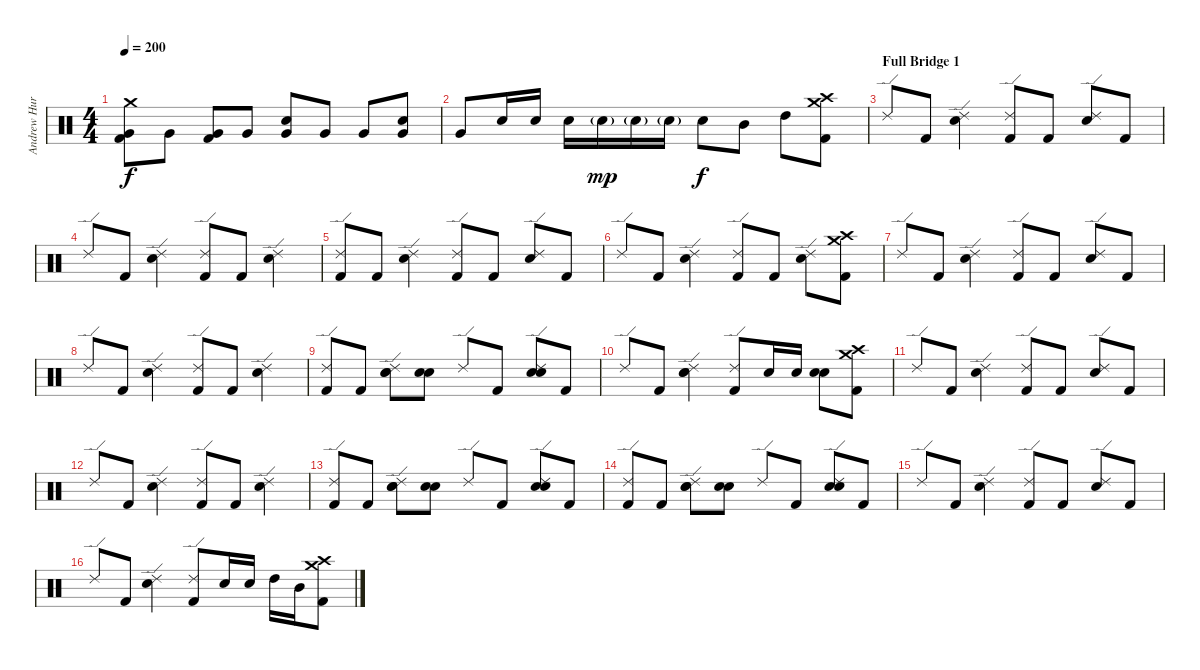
\track ("Andrew Hurley (Drums)" "Andrew Hur") {instrument percussion}
\staff {score}
\articulation defaults
\ts (4 4)
\tempo 200
\clef neutral
\ks c
("Kick (hit) 2" "Very Low Tom (hit)" "Crash medium (hit)").8{dy f} "Very Low Tom (hit)".8 ("Kick (hit) 2" "Very Low Tom (hit)").8 "Very Low Tom (hit)".8 ("Electric Snare (hit)" "Very Low Tom (hit)").8 "Very Low Tom (hit)".8 "Very Low Tom (hit)".8 ("Electric Snare (hit)" "Very Low Tom (hit)").8 |
"Very Low Tom (hit)".8 "Electric Snare (hit)".16 "Electric Snare (hit)".16 "Electric Snare (hit)".16 "Electric Snare (hit)"{g}.16{dy mp} "Electric Snare (hit)"{g}.16 "Electric Snare (hit)"{g}.16 "Electric Snare (hit)".8{dy f} "Mid Tom (hit)".8 "High Tom (hit)".8 ("Crash medium (hit)" "Crash high (hit)" "Kick (hit) 2").8 |
\section ("" "Full Bridge 1")
"Ride (edge) 2".8 "Kick (hit) 2".8 ("Electric Snare (hit)" "Ride (edge) 2").4 ("Kick (hit) 2" "Ride (edge) 2").8 "Kick (hit) 2".8 ("Electric Snare (hit)" "Ride (edge) 2").8 "Kick (hit) 2".8 |
"Ride (edge) 2".8 "Kick (hit) 2".8 ("Electric Snare (hit)" "Ride (edge) 2").4 ("Kick (hit) 2" "Ride (edge) 2").8 "Kick (hit) 2".8 ("Electric Snare (hit)" "Ride (edge) 2").4 |
("Kick (hit) 2" "Ride (edge) 2").8 "Kick (hit) 2".8 ("Electric Snare (hit)" "Ride (edge) 2").4 ("Kick (hit) 2" "Ride (edge) 2").8 "Kick (hit) 2".8 ("Electric Snare (hit)" "Ride (edge) 2").8 "Kick (hit) 2".8 |
"Ride (edge) 2".8 "Kick (hit) 2".8 ("Electric Snare (hit)" "Ride (edge) 2").4 ("Kick (hit) 2" "Ride (edge) 2").8 "Kick (hit) 2".8 ("Electric Snare (hit)" "Ride (edge) 2").8 ("Kick (hit) 2" "Crash high (hit)" "Crash medium (hit)").8 |
"Ride (edge) 2".8 "Kick (hit) 2".8 ("Electric Snare (hit)" "Ride (edge) 2").4 ("Kick (hit) 2" "Ride (edge) 2").8 "Kick (hit) 2".8 ("Electric Snare (hit)" "Ride (edge) 2").8 "Kick (hit) 2".8 |
"Ride (edge) 2".8 "Kick (hit) 2".8 ("Electric Snare (hit)" "Ride (edge) 2").4 ("Kick (hit) 2" "Ride (edge) 2").8 "Kick (hit) 2".8 ("Electric Snare (hit)" "Ride (edge) 2").4 |
("Kick (hit) 2" "Ride (edge) 2").8 "Kick (hit) 2".8 ("Hand Clap (hit)" "Electric Snare (hit)" "Ride (edge) 2").8 ("Hand Clap (hit)" "Electric Snare (hit)").8 "Ride (edge) 2".8 "Kick (hit) 2".8 ("Hand Clap (hit)" "Electric Snare (hit)" "Ride (edge) 2").8 "Kick (hit) 2".8 |
"Ride (edge) 2".8 "Kick (hit) 2".8 ("Hand Clap (hit)" "Electric Snare (hit)" "Ride (edge) 2").4 ("Kick (hit) 2" "Ride (edge) 2").8 "Electric Snare (hit)".16 "Electric Snare (hit)".16 ("Hand Clap (hit)" "Electric Snare (hit)").8 ("Kick (hit) 2" "Crash medium (hit)" "Crash high (hit)").8 |
"Ride (edge) 2".8 "Kick (hit) 2".8 ("Electric Snare (hit)" "Ride (edge) 2").4 ("Kick (hit) 2" "Ride (edge) 2").8 "Kick (hit) 2".8 ("Electric Snare (hit)" "Ride (edge) 2").8 "Kick (hit) 2".8 |
"Ride (edge) 2".8 "Kick (hit) 2".8 ("Electric Snare (hit)" "Ride (edge) 2").4 ("Kick (hit) 2" "Ride (edge) 2").8 "Kick (hit) 2".8 ("Electric Snare (hit)" "Ride (edge) 2").4 |
("Kick (hit) 2" "Ride (edge) 2").8 "Kick (hit) 2".8 ("Hand Clap (hit)" "Electric Snare (hit)" "Ride (edge) 2").8 ("Hand Clap (hit)" "Electric Snare (hit)").8 "Ride (edge) 2".8 "Kick (hit) 2".8 ("Hand Clap (hit)" "Electric Snare (hit)" "Ride (edge) 2").8 "Kick (hit) 2".8 |
("Kick (hit) 2" "Ride (edge) 2").8 "Kick (hit) 2".8 ("Hand Clap (hit)" "Electric Snare (hit)" "Ride (edge) 2").8 ("Hand Clap (hit)" "Electric Snare (hit)").8 "Ride (edge) 2".8 "Kick (hit) 2".8 ("Hand Clap (hit)" "Electric Snare (hit)" "Ride (edge) 2").8 "Kick (hit) 2".8 |
"Ride (edge) 2".8 "Kick (hit) 2".8 ("Electric Snare (hit)" "Ride (edge) 2").4 ("Kick (hit) 2" "Ride (edge) 2").8 "Kick (hit) 2".8 ("Electric Snare (hit)" "Ride (edge) 2").8 "Kick (hit) 2".8 |
"Ride (edge) 2".8 "Kick (hit) 2".8 ("Electric Snare (hit)" "Ride (edge) 2").4 ("Kick (hit) 2" "Ride (edge) 2").8 "Electric Snare (hit)".16 "Electric Snare (hit)".16 "High Tom (hit)".16 "Mid Tom (hit)".16 ("Kick (hit) 2" "Crash medium (hit)" "Crash high (hit)").8
